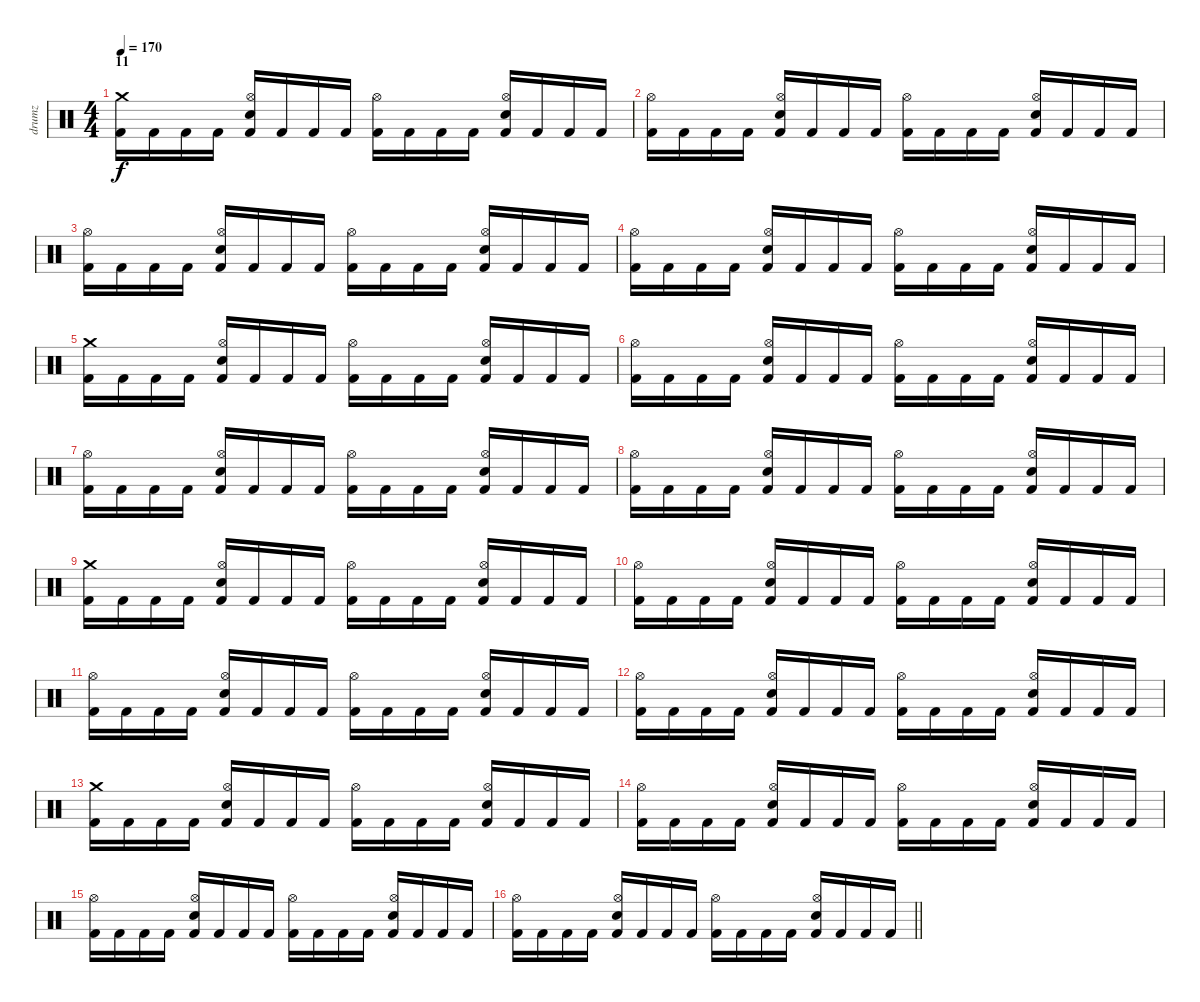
\track ("drumz" "drumz") {instrument percussion}
\staff {score}
\articulation defaults
\ts (4 4)
\section ("" "11")
\tempo 170
\clef neutral
\ks c
("Crash medium (hit)" "Kick (hit) 2").16{dy f} "Kick (hit) 2".16 "Kick (hit) 2".16 "Kick (hit) 2".16 ("Hi-Hat (open)" "Electric Snare (hit)" "Kick (hit) 2").16 "Kick (hit) 2".16 "Kick (hit) 2".16 "Kick (hit) 2".16 ("Hi-Hat (open)" "Kick (hit) 2").16 "Kick (hit) 2".16 "Kick (hit) 2".16 "Kick (hit) 2".16 ("Hi-Hat (open)" "Electric Snare (hit)" "Kick (hit) 2").16 "Kick (hit) 2".16 "Kick (hit) 2".16 "Kick (hit) 2".16 |
("Hi-Hat (open)" "Kick (hit) 2").16 "Kick (hit) 2".16 "Kick (hit) 2".16 "Kick (hit) 2".16 ("Hi-Hat (open)" "Electric Snare (hit)" "Kick (hit) 2").16 "Kick (hit) 2".16 "Kick (hit) 2".16 "Kick (hit) 2".16 ("Hi-Hat (open)" "Kick (hit) 2").16 "Kick (hit) 2".16 "Kick (hit) 2".16 "Kick (hit) 2".16 ("Hi-Hat (open)" "Electric Snare (hit)" "Kick (hit) 2").16 "Kick (hit) 2".16 "Kick (hit) 2".16 "Kick (hit) 2".16 |
("Hi-Hat (open)" "Kick (hit) 2").16 "Kick (hit) 2".16 "Kick (hit) 2".16 "Kick (hit) 2".16 ("Hi-Hat (open)" "Electric Snare (hit)" "Kick (hit) 2").16 "Kick (hit) 2".16 "Kick (hit) 2".16 "Kick (hit) 2".16 ("Hi-Hat (open)" "Kick (hit) 2").16 "Kick (hit) 2".16 "Kick (hit) 2".16 "Kick (hit) 2".16 ("Hi-Hat (open)" "Electric Snare (hit)" "Kick (hit) 2").16 "Kick (hit) 2".16 "Kick (hit) 2".16 "Kick (hit) 2".16 |
("Hi-Hat (open)" "Kick (hit) 2").16 "Kick (hit) 2".16 "Kick (hit) 2".16 "Kick (hit) 2".16 ("Hi-Hat (open)" "Electric Snare (hit)" "Kick (hit) 2").16 "Kick (hit) 2".16 "Kick (hit) 2".16 "Kick (hit) 2".16 ("Hi-Hat (open)" "Kick (hit) 2").16 "Kick (hit) 2".16 "Kick (hit) 2".16 "Kick (hit) 2".16 ("Hi-Hat (open)" "Electric Snare (hit)" "Kick (hit) 2").16 "Kick (hit) 2".16 "Kick (hit) 2".16 "Kick (hit) 2".16 |
("Crash medium (hit)" "Kick (hit) 2").16 "Kick (hit) 2".16 "Kick (hit) 2".16 "Kick (hit) 2".16 ("Hi-Hat (open)" "Electric Snare (hit)" "Kick (hit) 2").16 "Kick (hit) 2".16 "Kick (hit) 2".16 "Kick (hit) 2".16 ("Hi-Hat (open)" "Kick (hit) 2").16 "Kick (hit) 2".16 "Kick (hit) 2".16 "Kick (hit) 2".16 ("Hi-Hat (open)" "Electric Snare (hit)" "Kick (hit) 2").16 "Kick (hit) 2".16 "Kick (hit) 2".16 "Kick (hit) 2".16 |
("Hi-Hat (open)" "Kick (hit) 2").16 "Kick (hit) 2".16 "Kick (hit) 2".16 "Kick (hit) 2".16 ("Hi-Hat (open)" "Electric Snare (hit)" "Kick (hit) 2").16 "Kick (hit) 2".16 "Kick (hit) 2".16 "Kick (hit) 2".16 ("Hi-Hat (open)" "Kick (hit) 2").16 "Kick (hit) 2".16 "Kick (hit) 2".16 "Kick (hit) 2".16 ("Hi-Hat (open)" "Electric Snare (hit)" "Kick (hit) 2").16 "Kick (hit) 2".16 "Kick (hit) 2".16 "Kick (hit) 2".16 |
("Hi-Hat (open)" "Kick (hit) 2").16 "Kick (hit) 2".16 "Kick (hit) 2".16 "Kick (hit) 2".16 ("Hi-Hat (open)" "Electric Snare (hit)" "Kick (hit) 2").16 "Kick (hit) 2".16 "Kick (hit) 2".16 "Kick (hit) 2".16 ("Hi-Hat (open)" "Kick (hit) 2").16 "Kick (hit) 2".16 "Kick (hit) 2".16 "Kick (hit) 2".16 ("Hi-Hat (open)" "Electric Snare (hit)" "Kick (hit) 2").16 "Kick (hit) 2".16 "Kick (hit) 2".16 "Kick (hit) 2".16 |
("Hi-Hat (open)" "Kick (hit) 2").16 "Kick (hit) 2".16 "Kick (hit) 2".16 "Kick (hit) 2".16 ("Hi-Hat (open)" "Electric Snare (hit)" "Kick (hit) 2").16 "Kick (hit) 2".16 "Kick (hit) 2".16 "Kick (hit) 2".16 ("Hi-Hat (open)" "Kick (hit) 2").16 "Kick (hit) 2".16 "Kick (hit) 2".16 "Kick (hit) 2".16 ("Hi-Hat (open)" "Electric Snare (hit)" "Kick (hit) 2").16 "Kick (hit) 2".16 "Kick (hit) 2".16 "Kick (hit) 2".16 |
("Crash medium (hit)" "Kick (hit) 2").16 "Kick (hit) 2".16 "Kick (hit) 2".16 "Kick (hit) 2".16 ("Hi-Hat (open)" "Electric Snare (hit)" "Kick (hit) 2").16 "Kick (hit) 2".16 "Kick (hit) 2".16 "Kick (hit) 2".16 ("Hi-Hat (open)" "Kick (hit) 2").16 "Kick (hit) 2".16 "Kick (hit) 2".16 "Kick (hit) 2".16 ("Hi-Hat (open)" "Electric Snare (hit)" "Kick (hit) 2").16 "Kick (hit) 2".16 "Kick (hit) 2".16 "Kick (hit) 2".16 |
("Hi-Hat (open)" "Kick (hit) 2").16 "Kick (hit) 2".16 "Kick (hit) 2".16 "Kick (hit) 2".16 ("Hi-Hat (open)" "Electric Snare (hit)" "Kick (hit) 2").16 "Kick (hit) 2".16 "Kick (hit) 2".16 "Kick (hit) 2".16 ("Hi-Hat (open)" "Kick (hit) 2").16 "Kick (hit) 2".16 "Kick (hit) 2".16 "Kick (hit) 2".16 ("Hi-Hat (open)" "Electric Snare (hit)" "Kick (hit) 2").16 "Kick (hit) 2".16 "Kick (hit) 2".16 "Kick (hit) 2".16 |
("Hi-Hat (open)" "Kick (hit) 2").16 "Kick (hit) 2".16 "Kick (hit) 2".16 "Kick (hit) 2".16 ("Hi-Hat (open)" "Electric Snare (hit)" "Kick (hit) 2").16 "Kick (hit) 2".16 "Kick (hit) 2".16 "Kick (hit) 2".16 ("Hi-Hat (open)" "Kick (hit) 2").16 "Kick (hit) 2".16 "Kick (hit) 2".16 "Kick (hit) 2".16 ("Hi-Hat (open)" "Electric Snare (hit)" "Kick (hit) 2").16 "Kick (hit) 2".16 "Kick (hit) 2".16 "Kick (hit) 2".16 |
("Hi-Hat (open)" "Kick (hit) 2").16 "Kick (hit) 2".16 "Kick (hit) 2".16 "Kick (hit) 2".16 ("Hi-Hat (open)" "Electric Snare (hit)" "Kick (hit) 2").16 "Kick (hit) 2".16 "Kick (hit) 2".16 "Kick (hit) 2".16 ("Hi-Hat (open)" "Kick (hit) 2").16 "Kick (hit) 2".16 "Kick (hit) 2".16 "Kick (hit) 2".16 ("Hi-Hat (open)" "Electric Snare (hit)" "Kick (hit) 2").16 "Kick (hit) 2".16 "Kick (hit) 2".16 "Kick (hit) 2".16 |
("Crash medium (hit)" "Kick (hit) 2").16 "Kick (hit) 2".16 "Kick (hit) 2".16 "Kick (hit) 2".16 ("Hi-Hat (open)" "Electric Snare (hit)" "Kick (hit) 2").16 "Kick (hit) 2".16 "Kick (hit) 2".16 "Kick (hit) 2".16 ("Hi-Hat (open)" "Kick (hit) 2").16 "Kick (hit) 2".16 "Kick (hit) 2".16 "Kick (hit) 2".16 ("Hi-Hat (open)" "Electric Snare (hit)" "Kick (hit) 2").16 "Kick (hit) 2".16 "Kick (hit) 2".16 "Kick (hit) 2".16 |
("Hi-Hat (open)" "Kick (hit) 2").16 "Kick (hit) 2".16 "Kick (hit) 2".16 "Kick (hit) 2".16 ("Hi-Hat (open)" "Electric Snare (hit)" "Kick (hit) 2").16 "Kick (hit) 2".16 "Kick (hit) 2".16 "Kick (hit) 2".16 ("Hi-Hat (open)" "Kick (hit) 2").16 "Kick (hit) 2".16 "Kick (hit) 2".16 "Kick (hit) 2".16 ("Hi-Hat (open)" "Electric Snare (hit)" "Kick (hit) 2").16 "Kick (hit) 2".16 "Kick (hit) 2".16 "Kick (hit) 2".16 |
("Hi-Hat (open)" "Kick (hit) 2").16 "Kick (hit) 2".16 "Kick (hit) 2".16 "Kick (hit) 2".16 ("Hi-Hat (open)" "Electric Snare (hit)" "Kick (hit) 2").16 "Kick (hit) 2".16 "Kick (hit) 2".16 "Kick (hit) 2".16 ("Hi-Hat (open)" "Kick (hit) 2").16 "Kick (hit) 2".16 "Kick (hit) 2".16 "Kick (hit) 2".16 ("Hi-Hat (open)" "Electric Snare (hit)" "Kick (hit) 2").16 "Kick (hit) 2".16 "Kick (hit) 2".16 "Kick (hit) 2".16 |
\barLineRight lightlight
("Hi-Hat (open)" "Kick (hit) 2").16 "Kick (hit) 2".16 "Kick (hit) 2".16 "Kick (hit) 2".16 ("Hi-Hat (open)" "Electric Snare (hit)" "Kick (hit) 2").16 "Kick (hit) 2".16 "Kick (hit) 2".16 "Kick (hit) 2".16 ("Hi-Hat (open)" "Kick (hit) 2").16 "Kick (hit) 2".16 "Kick (hit) 2".16 "Kick (hit) 2".16 ("Hi-Hat (open)" "Electric Snare (hit)" "Kick (hit) 2").16 "Kick (hit) 2".16 "Kick (hit) 2".16 "Kick (hit) 2".16
